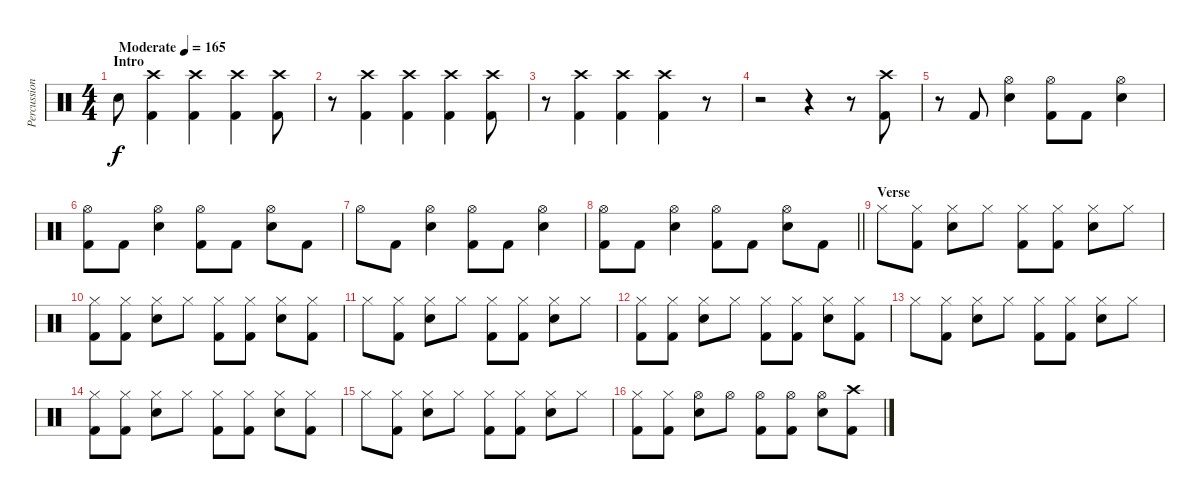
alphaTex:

\track ("Percussion" "Percussion") {instrument percussion}
\staff {score}
\articulation defaults
\ts (4 4)
\section ("" "Intro ")
\tempo (165 "Moderate")
\clef neutral
\ks c "Electric Snare (hit)".8{dy f}
("Crash high (hit)" "Kick (hit) 2").4 ("Crash high (hit)" "Kick (hit) 2").4 ("Crash high (hit)" "Kick (hit) 2").4 ("Crash high (hit)" "Kick (hit) 2").8 |
r.8 ("Crash high (hit)" "Kick (hit) 2").4 ("Crash high (hit)" "Kick (hit) 2").4 ("Crash high (hit)" "Kick (hit) 2").4 ("Crash high (hit)" "Kick (hit) 2").8 |
r.8 ("Crash high (hit)" "Kick (hit) 2").4 ("Crash high (hit)" "Kick (hit) 2").4 ("Crash high (hit)" "Kick (hit) 2").4 r.8 |
r.2 r.4 r.8 ("Crash high (hit)" "Kick (hit) 2").8 |
r.8 "Kick (hit) 2".8 ("Hi-Hat (open)" "Electric Snare (hit)").4 ("Hi-Hat (open)" "Kick (hit) 2").8 "Kick (hit) 2".8 ("Hi-Hat (open)" "Electric Snare (hit)").4 |
("Hi-Hat (open)" "Kick (hit) 2").8 "Kick (hit) 2".8 ("Hi-Hat (open)" "Electric Snare (hit)").4 ("Hi-Hat (open)" "Kick (hit) 2").8 "Kick (hit) 2".8 ("Hi-Hat (open)" "Electric Snare (hit)").8 "Kick (hit) 2".8 |
"Hi-Hat (open)".8 "Kick (hit) 2".8 ("Hi-Hat (open)" "Electric Snare (hit)").4 ("Hi-Hat (open)" "Kick (hit) 2").8 "Kick (hit) 2".8 ("Hi-Hat (open)" "Electric Snare (hit)").4 |
\barLineRight lightlight
("Hi-Hat (open)" "Kick (hit) 2").8 "Kick (hit) 2".8 ("Hi-Hat (open)" "Electric Snare (hit)").4 ("Hi-Hat (open)" "Kick (hit) 2").8 "Kick (hit) 2".8 ("Hi-Hat (open)" "Electric Snare (hit)").8 "Kick (hit) 2".8 |
\section ("" "Verse")
"Hi-Hat (closed)".8 ("Hi-Hat (closed)" "Kick (hit) 2").8 ("Hi-Hat (closed)" "Electric Snare (hit)").8 "Hi-Hat (closed)".8 ("Hi-Hat (closed)" "Kick (hit) 2").8 ("Hi-Hat (closed)" "Kick (hit) 2").8 ("Hi-Hat (closed)" "Electric Snare (hit)").8 "Hi-Hat (closed)".8 |
("Hi-Hat (closed)" "Kick (hit) 2").8 ("Hi-Hat (closed)" "Kick (hit) 2").8 ("Hi-Hat (closed)" "Electric Snare (hit)").8 "Hi-Hat (closed)".8 ("Hi-Hat (closed)" "Kick (hit) 2").8 ("Hi-Hat (closed)" "Kick (hit) 2").8 ("Hi-Hat (closed)" "Electric Snare (hit)").8 ("Hi-Hat (closed)" "Kick (hit) 2").8 |
"Hi-Hat (closed)".8 ("Hi-Hat (closed)" "Kick (hit) 2").8 ("Hi-Hat (closed)" "Electric Snare (hit)").8 "Hi-Hat (closed)".8 ("Hi-Hat (closed)" "Kick (hit) 2").8 ("Hi-Hat (closed)" "Kick (hit) 2").8 ("Hi-Hat (closed)" "Electric Snare (hit)").8 "Hi-Hat (closed)".8 |
("Hi-Hat (closed)" "Kick (hit) 2").8 ("Hi-Hat (closed)" "Kick (hit) 2").8 ("Hi-Hat (closed)" "Electric Snare (hit)").8 "Hi-Hat (closed)".8 ("Hi-Hat (closed)" "Kick (hit) 2").8 ("Hi-Hat (closed)" "Kick (hit) 2").8 ("Hi-Hat (closed)" "Electric Snare (hit)").8 ("Hi-Hat (closed)" "Kick (hit) 2").8 |
"Hi-Hat (closed)".8 ("Hi-Hat (closed)" "Kick (hit) 2").8 ("Hi-Hat (closed)" "Electric Snare (hit)").8 "Hi-Hat (closed)".8 ("Hi-Hat (closed)" "Kick (hit) 2").8 ("Hi-Hat (closed)" "Kick (hit) 2").8 ("Hi-Hat (closed)" "Electric Snare (hit)").8 "Hi-Hat (closed)".8 |
("Hi-Hat (closed)" "Kick (hit) 2").8 ("Hi-Hat (closed)" "Kick (hit) 2").8 ("Hi-Hat (closed)" "Electric Snare (hit)").8 "Hi-Hat (closed)".8 ("Hi-Hat (closed)" "Kick (hit) 2").8 ("Hi-Hat (closed)" "Kick (hit) 2").8 ("Hi-Hat (closed)" "Electric Snare (hit)").8 ("Hi-Hat (closed)" "Kick (hit) 2").8 |
"Hi-Hat (closed)".8 ("Hi-Hat (closed)" "Kick (hit) 2").8 ("Hi-Hat (closed)" "Electric Snare (hit)").8 "Hi-Hat (closed)".8 ("Hi-Hat (closed)" "Kick (hit) 2").8 ("Hi-Hat (closed)" "Kick (hit) 2").8 ("Hi-Hat (closed)" "Electric Snare (hit)").8 "Hi-Hat (closed)".8 |
("Hi-Hat (closed)" "Kick (hit) 2").8 ("Hi-Hat (closed)" "Kick (hit) 2").8 ("Hi-Hat (open)" "Electric Snare (hit)").8 "Hi-Hat (open)".8 ("Hi-Hat (open)" "Kick (hit) 2").8 ("Hi-Hat (open)" "Kick (hit) 2").8 ("Hi-Hat (open)" "Electric Snare (hit)").8 ("Crash high (hit)" "Kick (hit) 2").8
